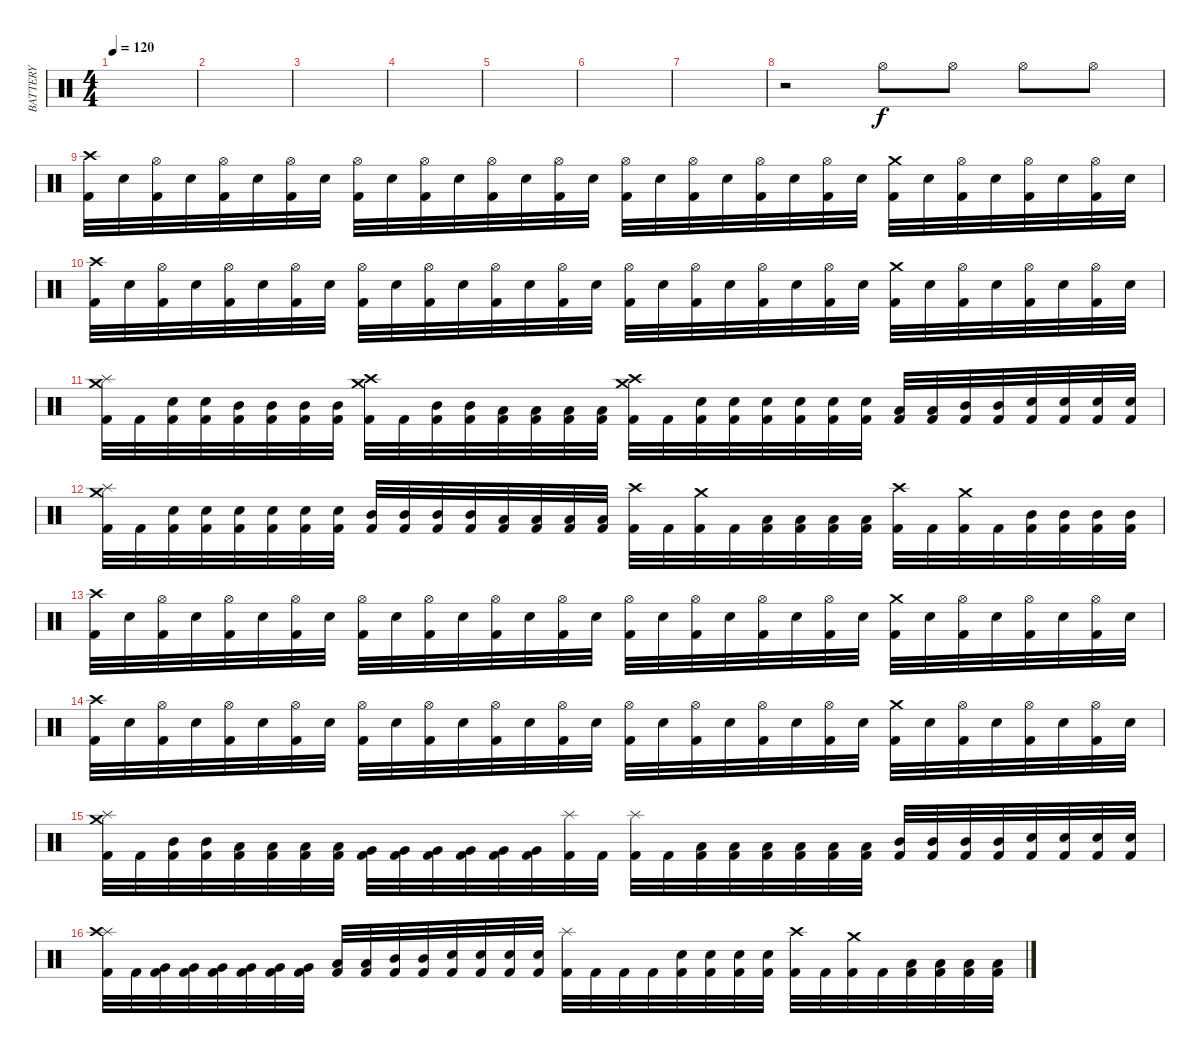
\track ("BATTERY" "BATTERY") {instrument percussion}
\staff {score}
\articulation defaults
\ts (4 4)
\tempo 120
\clef neutral
\ks c
|
|
|
|
|
|
|
r.2 "Hi-Hat (open)".8 "Hi-Hat (open)".8 "Hi-Hat (open)".8 "Hi-Hat (open)".8 |
("Kick (hit) 2" "Crash high (hit)").32 "Snare (hit) 2".32 ("Kick (hit) 2" "Hi-Hat (open)").32 "Snare (hit) 2".32 ("Kick (hit) 2" "Hi-Hat (open)").32 "Snare (hit) 2".32 ("Kick (hit) 2" "Hi-Hat (open)").32 "Snare (hit) 2".32 ("Kick (hit) 2" "Hi-Hat (open)").32 "Snare (hit) 2".32 ("Kick (hit) 2" "Hi-Hat (open)").32 "Snare (hit) 2".32 ("Kick (hit) 2" "Hi-Hat (open)").32 "Snare (hit) 2".32 ("Kick (hit) 2" "Hi-Hat (open)").32 "Snare (hit) 2".32 ("Kick (hit) 2" "Hi-Hat (open)").32 "Snare (hit) 2".32 ("Kick (hit) 2" "Hi-Hat (open)").32 "Snare (hit) 2".32 ("Kick (hit) 2" "Hi-Hat (open)").32 "Snare (hit) 2".32 ("Kick (hit) 2" "Hi-Hat (open)").32 "Snare (hit) 2".32 ("Kick (hit) 2" "Crash medium (hit)").32 "Snare (hit) 2".32 ("Kick (hit) 2" "Hi-Hat (open)").32 "Snare (hit) 2".32 ("Kick (hit) 2" "Hi-Hat (open)").32 "Snare (hit) 2".32 ("Kick (hit) 2" "Hi-Hat (open)").32 "Snare (hit) 2".32 |
("Kick (hit) 2" "Crash high (hit)").32 "Snare (hit) 2".32 ("Kick (hit) 2" "Hi-Hat (open)").32 "Snare (hit) 2".32 ("Kick (hit) 2" "Hi-Hat (open)").32 "Snare (hit) 2".32 ("Kick (hit) 2" "Hi-Hat (open)").32 "Snare (hit) 2".32 ("Kick (hit) 2" "Hi-Hat (open)").32 "Snare (hit) 2".32 ("Kick (hit) 2" "Hi-Hat (open)").32 "Snare (hit) 2".32 ("Kick (hit) 2" "Hi-Hat (open)").32 "Snare (hit) 2".32 ("Kick (hit) 2" "Hi-Hat (open)").32 "Snare (hit) 2".32 ("Kick (hit) 2" "Hi-Hat (open)").32 "Snare (hit) 2".32 ("Kick (hit) 2" "Hi-Hat (open)").32 "Snare (hit) 2".32 ("Kick (hit) 2" "Hi-Hat (open)").32 "Snare (hit) 2".32 ("Kick (hit) 2" "Hi-Hat (open)").32 "Snare (hit) 2".32 ("Kick (hit) 2" "Crash medium (hit)").32 "Snare (hit) 2".32 ("Kick (hit) 2" "Hi-Hat (open)").32 "Snare (hit) 2".32 ("Kick (hit) 2" "Hi-Hat (open)").32 "Snare (hit) 2".32 ("Kick (hit) 2" "Hi-Hat (open)").32 "Snare (hit) 2".32 |
("Kick (hit) 2" "Splash (hit)" "Crash medium (hit)").32 "Kick (hit) 2".32 ("Kick (hit) 2" "Snare (hit) 2").32 ("Kick (hit) 2" "Snare (hit) 2").32 ("Kick (hit) 2" "Mid Tom (hit)").32 ("Kick (hit) 2" "Mid Tom (hit)").32 ("Kick (hit) 2" "Mid Tom (hit)").32 ("Kick (hit) 2" "Mid Tom (hit)").32 ("Kick (hit) 2" "Crash medium (hit)" "Crash high (hit)").32 "Kick (hit) 2".32 ("Kick (hit) 2" "Mid Tom (hit)").32 ("Kick (hit) 2" "Mid Tom (hit)").32 ("Kick (hit) 2" "Low Tom (hit)").32 ("Kick (hit) 2" "Low Tom (hit)").32 ("Kick (hit) 2" "Low Tom (hit)").32 ("Kick (hit) 2" "Low Tom (hit)").32 ("Kick (hit) 2" "Crash high (hit)" "Crash medium (hit)").32 "Kick (hit) 2".32 ("Kick (hit) 2" "Snare (hit) 2").32 ("Kick (hit) 2" "Snare (hit) 2").32 ("Kick (hit) 2" "Snare (hit) 2").32 ("Kick (hit) 2" "Snare (hit) 2").32 ("Kick (hit) 2" "Snare (hit) 2").32 ("Kick (hit) 2" "Snare (hit) 2").32 ("Kick (hit) 2" "Low Tom (hit)").32 ("Kick (hit) 2" "Low Tom (hit)").32 ("Kick (hit) 2" "Mid Tom (hit)").32 ("Kick (hit) 2" "Mid Tom (hit)").32 ("Kick (hit) 2" "Snare (hit) 2").32 ("Kick (hit) 2" "Snare (hit) 2").32 ("Kick (hit) 2" "Snare (hit) 2").32 ("Kick (hit) 2" "Snare (hit) 2").32 |
("Kick (hit) 2" "Splash (hit)" "Crash medium (hit)").32 "Kick (hit) 2".32 ("Kick (hit) 2" "Snare (hit) 2").32 ("Kick (hit) 2" "Snare (hit) 2").32 ("Kick (hit) 2" "Snare (hit) 2").32 ("Kick (hit) 2" "Snare (hit) 2").32 ("Kick (hit) 2" "Snare (hit) 2").32 ("Kick (hit) 2" "Snare (hit) 2").32 ("Kick (hit) 2" "Mid Tom (hit)").32 ("Kick (hit) 2" "Mid Tom (hit)").32 ("Kick (hit) 2" "Mid Tom (hit)").32 ("Kick (hit) 2" "Mid Tom (hit)").32 ("Kick (hit) 2" "Low Tom (hit)").32 ("Kick (hit) 2" "Low Tom (hit)").32 ("Kick (hit) 2" "Low Tom (hit)").32 ("Kick (hit) 2" "Low Tom (hit)").32 ("Kick (hit) 2" "Crash high (hit)").32 "Kick (hit) 2".32 ("Kick (hit) 2" "Crash medium (hit)").32 "Kick (hit) 2".32 ("Kick (hit) 2" "Low Tom (hit)").32 ("Kick (hit) 2" "Low Tom (hit)").32 ("Kick (hit) 2" "Low Tom (hit)").32 ("Kick (hit) 2" "Low Tom (hit)").32 ("Kick (hit) 2" "Crash high (hit)").32 "Kick (hit) 2".32 ("Kick (hit) 2" "Crash medium (hit)").32 "Kick (hit) 2".32 ("Kick (hit) 2" "Mid Tom (hit)").32 ("Kick (hit) 2" "Mid Tom (hit)").32 ("Kick (hit) 2" "Mid Tom (hit)").32 ("Kick (hit) 2" "Mid Tom (hit)").32 |
("Kick (hit) 2" "Crash high (hit)").32 "Snare (hit) 2".32 ("Kick (hit) 2" "Hi-Hat (open)").32 "Snare (hit) 2".32 ("Kick (hit) 2" "Hi-Hat (open)").32 "Snare (hit) 2".32 ("Kick (hit) 2" "Hi-Hat (open)").32 "Snare (hit) 2".32 ("Kick (hit) 2" "Hi-Hat (open)").32 "Snare (hit) 2".32 ("Kick (hit) 2" "Hi-Hat (open)").32 "Snare (hit) 2".32 ("Kick (hit) 2" "Hi-Hat (open)").32 "Snare (hit) 2".32 ("Kick (hit) 2" "Hi-Hat (open)").32 "Snare (hit) 2".32 ("Kick (hit) 2" "Hi-Hat (open)").32 "Snare (hit) 2".32 ("Kick (hit) 2" "Hi-Hat (open)").32 "Snare (hit) 2".32 ("Kick (hit) 2" "Hi-Hat (open)").32 "Snare (hit) 2".32 ("Kick (hit) 2" "Hi-Hat (open)").32 "Snare (hit) 2".32 ("Kick (hit) 2" "Crash medium (hit)").32 "Snare (hit) 2".32 ("Kick (hit) 2" "Hi-Hat (open)").32 "Snare (hit) 2".32 ("Kick (hit) 2" "Hi-Hat (open)").32 "Snare (hit) 2".32 ("Kick (hit) 2" "Hi-Hat (open)").32 "Snare (hit) 2".32 |
("Kick (hit) 2" "Crash high (hit)").32 "Snare (hit) 2".32 ("Kick (hit) 2" "Hi-Hat (open)").32 "Snare (hit) 2".32 ("Kick (hit) 2" "Hi-Hat (open)").32 "Snare (hit) 2".32 ("Kick (hit) 2" "Hi-Hat (open)").32 "Snare (hit) 2".32 ("Kick (hit) 2" "Hi-Hat (open)").32 "Snare (hit) 2".32 ("Kick (hit) 2" "Hi-Hat (open)").32 "Snare (hit) 2".32 ("Kick (hit) 2" "Hi-Hat (open)").32 "Snare (hit) 2".32 ("Kick (hit) 2" "Hi-Hat (open)").32 "Snare (hit) 2".32 ("Kick (hit) 2" "Hi-Hat (open)").32 "Snare (hit) 2".32 ("Kick (hit) 2" "Hi-Hat (open)").32 "Snare (hit) 2".32 ("Kick (hit) 2" "Hi-Hat (open)").32 "Snare (hit) 2".32 ("Kick (hit) 2" "Hi-Hat (open)").32 "Snare (hit) 2".32 ("Kick (hit) 2" "Crash medium (hit)").32 "Snare (hit) 2".32 ("Kick (hit) 2" "Hi-Hat (open)").32 "Snare (hit) 2".32 ("Kick (hit) 2" "Hi-Hat (open)").32 "Snare (hit) 2".32 ("Kick (hit) 2" "Hi-Hat (open)").32 "Snare (hit) 2".32 |
("Kick (hit) 2" "Splash (hit)" "Crash medium (hit)").32 "Kick (hit) 2".32 ("Kick (hit) 2" "Mid Tom (hit)").32 ("Kick (hit) 2" "Mid Tom (hit)").32 ("Kick (hit) 2" "Low Tom (hit)").32 ("Kick (hit) 2" "Low Tom (hit)").32 ("Kick (hit) 2" "Low Tom (hit)").32 ("Kick (hit) 2" "Low Tom (hit)").32 ("Kick (hit) 2" "Very Low Tom (hit)").32 ("Kick (hit) 2" "Very Low Tom (hit)").32 ("Kick (hit) 2" "Very Low Tom (hit)").32 ("Kick (hit) 2" "Very Low Tom (hit)").32 ("Kick (hit) 2" "Very Low Tom (hit)").32 ("Kick (hit) 2" "Very Low Tom (hit)").32 ("Kick (hit) 2" "Splash (hit)").32 "Kick (hit) 2".32 ("Kick (hit) 2" "Splash (hit)").32 "Kick (hit) 2".32 ("Kick (hit) 2" "Low Tom (hit)").32 ("Kick (hit) 2" "Low Tom (hit)").32 ("Kick (hit) 2" "Low Tom (hit)").32 ("Kick (hit) 2" "Low Tom (hit)").32 ("Kick (hit) 2" "Low Tom (hit)").32 ("Kick (hit) 2" "Low Tom (hit)").32 ("Kick (hit) 2" "Mid Tom (hit)").32 ("Kick (hit) 2" "Mid Tom (hit)").32 ("Kick (hit) 2" "Mid Tom (hit)").32 ("Kick (hit) 2" "Mid Tom (hit)").32 ("Kick (hit) 2" "Snare (hit) 2").32 ("Kick (hit) 2" "Snare (hit) 2").32 ("Kick (hit) 2" "Snare (hit) 2").32 ("Kick (hit) 2" "Snare (hit) 2").32 |
("Kick (hit) 2" "Splash (hit)" "Crash high (hit)").32 "Kick (hit) 2".32 ("Kick (hit) 2" "Very Low Tom (hit)").32 ("Kick (hit) 2" "Very Low Tom (hit)").32 ("Kick (hit) 2" "Very Low Tom (hit)").32 ("Kick (hit) 2" "Very Low Tom (hit)").32 ("Kick (hit) 2" "Very Low Tom (hit)").32 ("Kick (hit) 2" "Very Low Tom (hit)").32 ("Kick (hit) 2" "Low Tom (hit)").32 ("Kick (hit) 2" "Low Tom (hit)").32 ("Kick (hit) 2" "Mid Tom (hit)").32 ("Kick (hit) 2" "Mid Tom (hit)").32 ("Kick (hit) 2" "Snare (hit) 2").32 ("Kick (hit) 2" "Snare (hit) 2").32 ("Kick (hit) 2" "Snare (hit) 2").32 ("Kick (hit) 2" "Snare (hit) 2").32 ("Kick (hit) 2" "Splash (hit)").32 "Kick (hit) 2".32 "Kick (hit) 2".32 "Kick (hit) 2".32 ("Kick (hit) 2" "Snare (hit) 2").32 ("Kick (hit) 2" "Snare (hit) 2").32 ("Kick (hit) 2" "Snare (hit) 2").32 ("Kick (hit) 2" "Snare (hit) 2").32 ("Kick (hit) 2" "Crash high (hit)").32 "Kick (hit) 2".32 ("Kick (hit) 2" "Crash medium (hit)").32 "Kick (hit) 2".32 ("Kick (hit) 2" "Low Tom (hit)").32 ("Kick (hit) 2" "Low Tom (hit)").32 ("Kick (hit) 2" "Low Tom (hit)").32 ("Kick (hit) 2" "Low Tom (hit)").32
